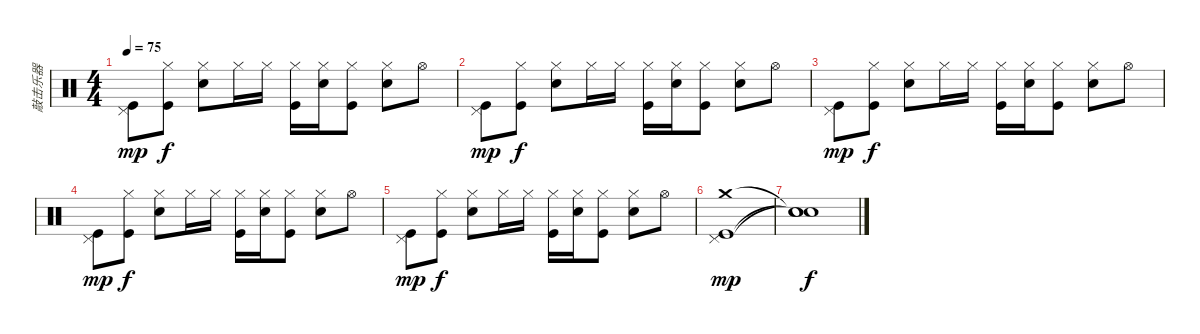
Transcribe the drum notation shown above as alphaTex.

\track ("敲击乐器" "敲击乐器") {instrument percussion}
\staff {score}
\articulation defaults
\ts (4 4)
\tempo 75
\clef neutral
\ks c
("Pedal Hi-Hat (hit)" "Kick (hit)").8{dy mp} ("Hi-Hat (closed)" "Kick (hit)").8{dy f} ("Hi-Hat (closed)" "Snare (hit) 2").8 "Hi-Hat (closed)".16 "Hi-Hat (closed)".16 ("Hi-Hat (closed)" "Kick (hit)").16 ("Hi-Hat (closed)" "Electric Snare (hit)").16 ("Hi-Hat (closed)" "Kick (hit)").8 ("Hi-Hat (closed)" "Snare (hit) 2").8 "Hi-Hat (open)".8 |
("Pedal Hi-Hat (hit)" "Kick (hit)").8{dy mp} ("Hi-Hat (closed)" "Kick (hit)").8{dy f} ("Hi-Hat (closed)" "Snare (hit) 2").8 "Hi-Hat (closed)".16 "Hi-Hat (closed)".16 ("Hi-Hat (closed)" "Kick (hit)").16 ("Hi-Hat (closed)" "Electric Snare (hit)").16 ("Hi-Hat (closed)" "Kick (hit)").8 ("Hi-Hat (closed)" "Snare (hit) 2").8 "Hi-Hat (open)".8 |
("Pedal Hi-Hat (hit)" "Kick (hit)").8{dy mp} ("Hi-Hat (closed)" "Kick (hit)").8{dy f} ("Hi-Hat (closed)" "Snare (hit) 2").8 "Hi-Hat (closed)".16 "Hi-Hat (closed)".16 ("Hi-Hat (closed)" "Kick (hit)").16 ("Hi-Hat (closed)" "Electric Snare (hit)").16 ("Hi-Hat (closed)" "Kick (hit)").8 ("Hi-Hat (closed)" "Snare (hit) 2").8 "Hi-Hat (open)".8 |
("Pedal Hi-Hat (hit)" "Kick (hit)").8{dy mp} ("Hi-Hat (closed)" "Kick (hit)").8{dy f} ("Hi-Hat (closed)" "Snare (hit) 2").8 "Hi-Hat (closed)".16 "Hi-Hat (closed)".16 ("Hi-Hat (closed)" "Kick (hit)").16 ("Hi-Hat (closed)" "Electric Snare (hit)").16 ("Hi-Hat (closed)" "Kick (hit)").8 ("Hi-Hat (closed)" "Snare (hit) 2").8 "Hi-Hat (open)".8 |
("Pedal Hi-Hat (hit)" "Kick (hit)").8{dy mp} ("Hi-Hat (closed)" "Kick (hit)").8{dy f} ("Hi-Hat (closed)" "Snare (hit) 2").8 "Hi-Hat (closed)".16 "Hi-Hat (closed)".16 ("Hi-Hat (closed)" "Kick (hit)").16 ("Hi-Hat (closed)" "Electric Snare (hit)").16 ("Hi-Hat (closed)" "Kick (hit)").8 ("Hi-Hat (closed)" "Snare (hit) 2").8 "Hi-Hat (open)".8 |
("Pedal Hi-Hat (hit)" "Crash medium (hit)" "Kick (hit)").1{dy mp} |
("Snare (hit)"{t} "Snare (hit)"{t} "Snare (hit)"{t}).1{dy f}
